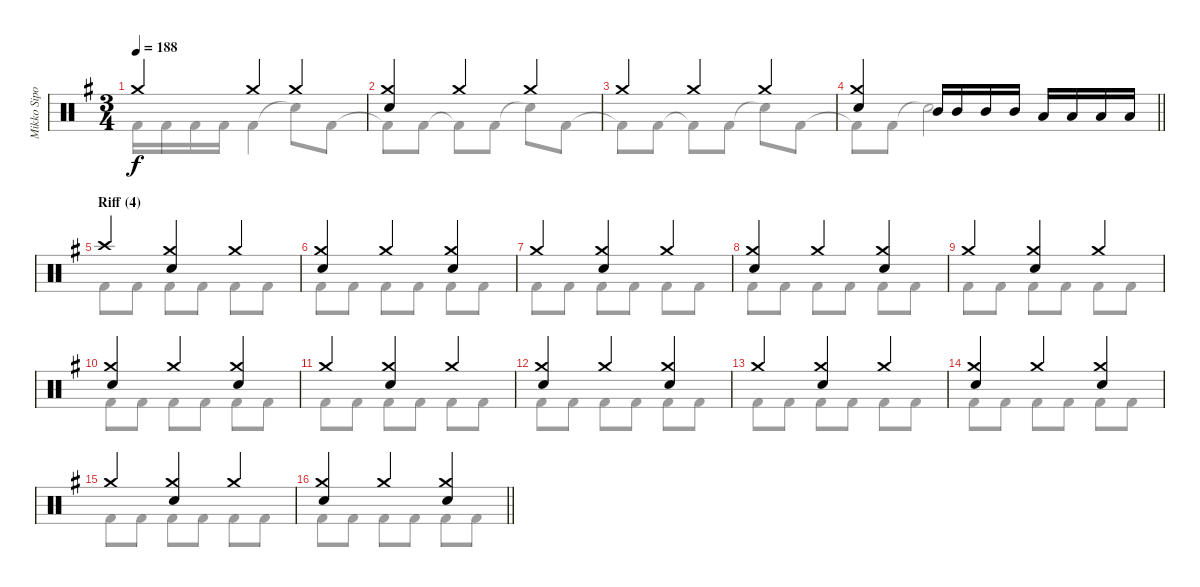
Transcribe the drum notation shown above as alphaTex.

\track ("Mikko Sipola (drums)" "Mikko Sipo") {instrument percussion}
\staff {score}
\articulation defaults
\voice
\ts (3 4)
\tempo 188
\clef neutral
\ks eminor "Crash medium (hit)".4{dy f} "Crash medium (hit)".4 "Crash medium (hit)".4
|
("Crash medium (hit)" "Electric Snare (hit)").4 "Crash medium (hit)".4 "Crash medium (hit)".4 |
"Crash medium (hit)".4 "Crash medium (hit)".4 "Crash medium (hit)".4 |
\barLineRight lightlight
("Crash medium (hit)" "Electric Snare (hit)").4 "Mid Tom (hit)".16 "Mid Tom (hit)".16 "Mid Tom (hit)".16 "Mid Tom (hit)".16 "Low Tom (hit)".16 "Low Tom (hit)".16 "Low Tom (hit)".16 "Low Tom (hit)".16 |
\section ("" "Riff (4)")
"Crash high (hit)".4 ("Crash medium (hit)" "Electric Snare (hit)").4 "Crash medium (hit)".4 |
("Crash medium (hit)" "Electric Snare (hit)").4 "Crash medium (hit)".4 ("Crash medium (hit)" "Electric Snare (hit)").4 |
"Crash medium (hit)".4 ("Crash medium (hit)" "Electric Snare (hit)").4 "Crash medium (hit)".4 |
("Crash medium (hit)" "Electric Snare (hit)").4 "Crash medium (hit)".4 ("Crash medium (hit)" "Electric Snare (hit)").4 |
"Crash medium (hit)".4 ("Crash medium (hit)" "Electric Snare (hit)").4 "Crash medium (hit)".4 |
("Crash medium (hit)" "Electric Snare (hit)").4 "Crash medium (hit)".4 ("Crash medium (hit)" "Electric Snare (hit)").4 |
"Crash medium (hit)".4 ("Crash medium (hit)" "Electric Snare (hit)").4 "Crash medium (hit)".4 |
("Crash medium (hit)" "Electric Snare (hit)").4 "Crash medium (hit)".4 ("Crash medium (hit)" "Electric Snare (hit)").4 |
"Crash medium (hit)".4 ("Crash medium (hit)" "Electric Snare (hit)").4 "Crash medium (hit)".4 |
("Crash medium (hit)" "Electric Snare (hit)").4 "Crash medium (hit)".4 ("Crash medium (hit)" "Electric Snare (hit)").4 |
"Crash medium (hit)".4 ("Crash medium (hit)" "Electric Snare (hit)").4 "Crash medium (hit)".4 |
\barLineRight lightlight
("Crash medium (hit)" "Electric Snare (hit)").4 "Crash medium (hit)".4 ("Crash medium (hit)" "Electric Snare (hit)").4
\voice
\clef neutral
\ottava regular
\simile none
\ks eminor "Kick (hit) 2".16{dy f} "Kick (hit) 2".16 "Kick (hit) 2".16 "Kick (hit) 2".16 "Kick (hit) 2".4 "Snare (hit)"{t}.8 "Kick (hit) 2".8
|
"Kick (hit) 2"{t}.8 "Kick (hit) 2".8 "Kick (hit) 2"{t}.8 "Kick (hit) 2".8 "Snare (hit)"{t}.8 "Kick (hit) 2".8 |
"Kick (hit) 2"{t}.8 "Kick (hit) 2".8 "Kick (hit) 2"{t}.8 "Kick (hit) 2".8 "Snare (hit)"{t}.8 "Kick (hit) 2".8 |
\barLineRight lightlight "Kick (hit) 2"{t}.8 "Kick (hit) 2".8 "Snare (hit)"{t}.2
|
"Kick (hit) 2".8 "Kick (hit) 2".8 "Kick (hit) 2".8 "Kick (hit) 2".8 "Kick (hit) 2".8 "Kick (hit) 2".8 |
"Kick (hit) 2".8 "Kick (hit) 2".8 "Kick (hit) 2".8 "Kick (hit) 2".8 "Kick (hit) 2".8 "Kick (hit) 2".8 |
"Kick (hit) 2".8 "Kick (hit) 2".8 "Kick (hit) 2".8 "Kick (hit) 2".8 "Kick (hit) 2".8 "Kick (hit) 2".8 |
"Kick (hit) 2".8 "Kick (hit) 2".8 "Kick (hit) 2".8 "Kick (hit) 2".8 "Kick (hit) 2".8 "Kick (hit) 2".8 |
"Kick (hit) 2".8 "Kick (hit) 2".8 "Kick (hit) 2".8 "Kick (hit) 2".8 "Kick (hit) 2".8 "Kick (hit) 2".8 |
"Kick (hit) 2".8 "Kick (hit) 2".8 "Kick (hit) 2".8 "Kick (hit) 2".8 "Kick (hit) 2".8 "Kick (hit) 2".8 |
"Kick (hit) 2".8 "Kick (hit) 2".8 "Kick (hit) 2".8 "Kick (hit) 2".8 "Kick (hit) 2".8 "Kick (hit) 2".8 |
"Kick (hit) 2".8 "Kick (hit) 2".8 "Kick (hit) 2".8 "Kick (hit) 2".8 "Kick (hit) 2".8 "Kick (hit) 2".8 |
"Kick (hit) 2".8 "Kick (hit) 2".8 "Kick (hit) 2".8 "Kick (hit) 2".8 "Kick (hit) 2".8 "Kick (hit) 2".8 |
"Kick (hit) 2".8 "Kick (hit) 2".8 "Kick (hit) 2".8 "Kick (hit) 2".8 "Kick (hit) 2".8 "Kick (hit) 2".8 |
"Kick (hit) 2".8 "Kick (hit) 2".8 "Kick (hit) 2".8 "Kick (hit) 2".8 "Kick (hit) 2".8 "Kick (hit) 2".8 |
\barLineRight lightlight "Kick (hit) 2".8 "Kick (hit) 2".8 "Kick (hit) 2".8 "Kick (hit) 2".8 "Kick (hit) 2".8 "Kick (hit) 2".8
